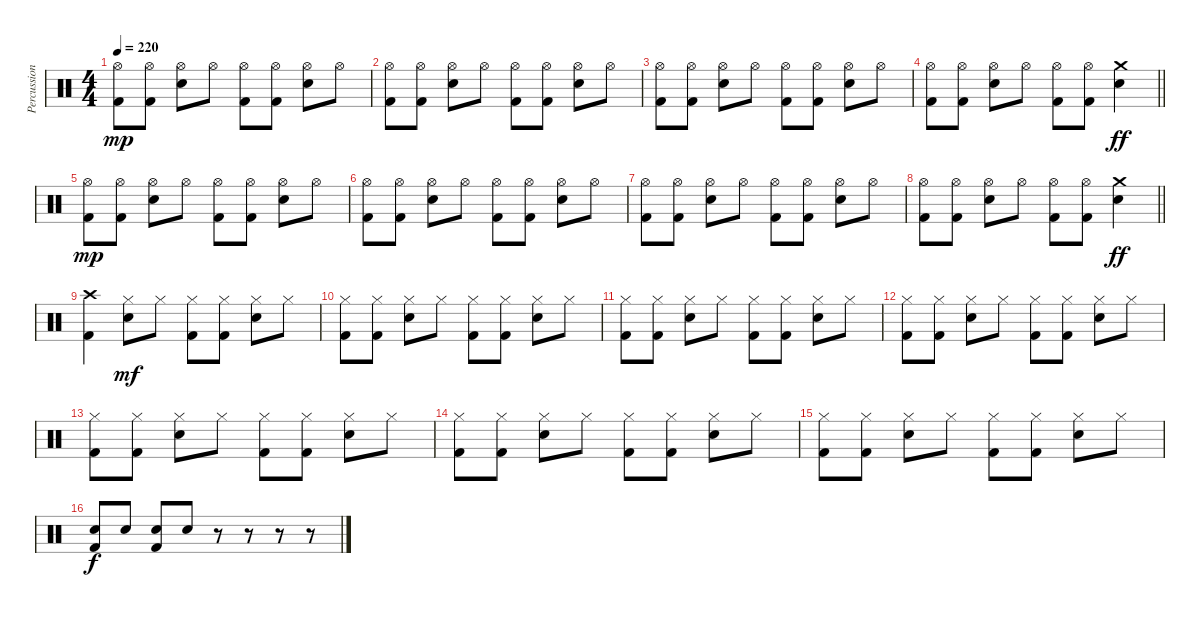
\track ("Percussion" "Percussion") {instrument percussion}
\staff {score}
\articulation defaults
\ts (4 4)
\tempo 220
\clef neutral
\ks c
("Hi-Hat (open)" "Kick (hit) 2").8{dy mp} ("Hi-Hat (open)" "Kick (hit) 2").8 ("Hi-Hat (open)" "Electric Snare (hit)").8 "Hi-Hat (open)".8 ("Hi-Hat (open)" "Kick (hit) 2").8 ("Hi-Hat (open)" "Kick (hit) 2").8 ("Hi-Hat (open)" "Electric Snare (hit)").8 "Hi-Hat (open)".8 |
("Hi-Hat (open)" "Kick (hit) 2").8 ("Hi-Hat (open)" "Kick (hit) 2").8 ("Hi-Hat (open)" "Electric Snare (hit)").8 "Hi-Hat (open)".8 ("Hi-Hat (open)" "Kick (hit) 2").8 ("Hi-Hat (open)" "Kick (hit) 2").8 ("Hi-Hat (open)" "Electric Snare (hit)").8 "Hi-Hat (open)".8 |
("Hi-Hat (open)" "Kick (hit) 2").8 ("Hi-Hat (open)" "Kick (hit) 2").8 ("Hi-Hat (open)" "Electric Snare (hit)").8 "Hi-Hat (open)".8 ("Hi-Hat (open)" "Kick (hit) 2").8 ("Hi-Hat (open)" "Kick (hit) 2").8 ("Hi-Hat (open)" "Electric Snare (hit)").8 "Hi-Hat (open)".8 |
\barLineRight lightlight
("Hi-Hat (open)" "Kick (hit) 2").8 ("Hi-Hat (open)" "Kick (hit) 2").8 ("Hi-Hat (open)" "Electric Snare (hit)").8 "Hi-Hat (open)".8 ("Hi-Hat (open)" "Kick (hit) 2").8 ("Hi-Hat (open)" "Kick (hit) 2").8 ("Crash medium (hit)" "Electric Snare (hit)").4{dy ff} |
("Hi-Hat (open)" "Kick (hit) 2").8{dy mp} ("Hi-Hat (open)" "Kick (hit) 2").8 ("Hi-Hat (open)" "Electric Snare (hit)").8 "Hi-Hat (open)".8 ("Hi-Hat (open)" "Kick (hit) 2").8 ("Hi-Hat (open)" "Kick (hit) 2").8 ("Hi-Hat (open)" "Electric Snare (hit)").8 "Hi-Hat (open)".8 |
("Hi-Hat (open)" "Kick (hit) 2").8 ("Hi-Hat (open)" "Kick (hit) 2").8 ("Hi-Hat (open)" "Electric Snare (hit)").8 "Hi-Hat (open)".8 ("Hi-Hat (open)" "Kick (hit) 2").8 ("Hi-Hat (open)" "Kick (hit) 2").8 ("Hi-Hat (open)" "Electric Snare (hit)").8 "Hi-Hat (open)".8 |
("Hi-Hat (open)" "Kick (hit) 2").8 ("Hi-Hat (open)" "Kick (hit) 2").8 ("Hi-Hat (open)" "Electric Snare (hit)").8 "Hi-Hat (open)".8 ("Hi-Hat (open)" "Kick (hit) 2").8 ("Hi-Hat (open)" "Kick (hit) 2").8 ("Hi-Hat (open)" "Electric Snare (hit)").8 "Hi-Hat (open)".8 |
\barLineRight lightlight
("Hi-Hat (open)" "Kick (hit) 2").8 ("Hi-Hat (open)" "Kick (hit) 2").8 ("Hi-Hat (open)" "Electric Snare (hit)").8 "Hi-Hat (open)".8 ("Hi-Hat (open)" "Kick (hit) 2").8 ("Hi-Hat (open)" "Kick (hit) 2").8 ("Crash medium (hit)" "Electric Snare (hit)").4{dy ff} |
("Crash high (hit)" "Kick (hit) 2").4 ("Hi-Hat (closed)" "Electric Snare (hit)").8{dy mf} "Hi-Hat (closed)".8 ("Hi-Hat (closed)" "Kick (hit) 2").8 ("Hi-Hat (closed)" "Kick (hit) 2").8 ("Hi-Hat (closed)" "Electric Snare (hit)").8 "Hi-Hat (closed)".8 |
("Hi-Hat (closed)" "Kick (hit) 2").8 ("Hi-Hat (closed)" "Kick (hit) 2").8 ("Hi-Hat (closed)" "Electric Snare (hit)").8 "Hi-Hat (closed)".8 ("Hi-Hat (closed)" "Kick (hit) 2").8 ("Hi-Hat (closed)" "Kick (hit) 2").8 ("Hi-Hat (closed)" "Electric Snare (hit)").8 "Hi-Hat (closed)".8 |
("Hi-Hat (closed)" "Kick (hit) 2").8 ("Hi-Hat (closed)" "Kick (hit) 2").8 ("Hi-Hat (closed)" "Electric Snare (hit)").8 "Hi-Hat (closed)".8 ("Hi-Hat (closed)" "Kick (hit) 2").8 ("Hi-Hat (closed)" "Kick (hit) 2").8 ("Hi-Hat (closed)" "Electric Snare (hit)").8 "Hi-Hat (closed)".8 |
("Hi-Hat (closed)" "Kick (hit) 2").8 ("Hi-Hat (closed)" "Kick (hit) 2").8 ("Hi-Hat (closed)" "Electric Snare (hit)").8 "Hi-Hat (closed)".8 ("Hi-Hat (closed)" "Kick (hit) 2").8 ("Hi-Hat (closed)" "Kick (hit) 2").8 ("Hi-Hat (closed)" "Electric Snare (hit)").8 "Hi-Hat (closed)".8 |
("Hi-Hat (closed)" "Kick (hit) 2").8 ("Hi-Hat (closed)" "Kick (hit) 2").8 ("Hi-Hat (closed)" "Electric Snare (hit)").8 "Hi-Hat (closed)".8 ("Hi-Hat (closed)" "Kick (hit) 2").8 ("Hi-Hat (closed)" "Kick (hit) 2").8 ("Hi-Hat (closed)" "Electric Snare (hit)").8 "Hi-Hat (closed)".8 |
("Hi-Hat (closed)" "Kick (hit) 2").8 ("Hi-Hat (closed)" "Kick (hit) 2").8 ("Hi-Hat (closed)" "Electric Snare (hit)").8 "Hi-Hat (closed)".8 ("Hi-Hat (closed)" "Kick (hit) 2").8 ("Hi-Hat (closed)" "Kick (hit) 2").8 ("Hi-Hat (closed)" "Electric Snare (hit)").8 "Hi-Hat (closed)".8 |
("Hi-Hat (closed)" "Kick (hit) 2").8 ("Hi-Hat (closed)" "Kick (hit) 2").8 ("Hi-Hat (closed)" "Electric Snare (hit)").8 "Hi-Hat (closed)".8 ("Hi-Hat (closed)" "Kick (hit) 2").8 ("Hi-Hat (closed)" "Kick (hit) 2").8 ("Hi-Hat (closed)" "Electric Snare (hit)").8 "Hi-Hat (closed)".8 |
("Electric Snare (hit)" "Kick (hit) 2").8{dy f} "Electric Snare (hit)".8 ("Electric Snare (hit)" "Kick (hit) 2").8 "Electric Snare (hit)".8 r.8 r.8 r.8 r.8
